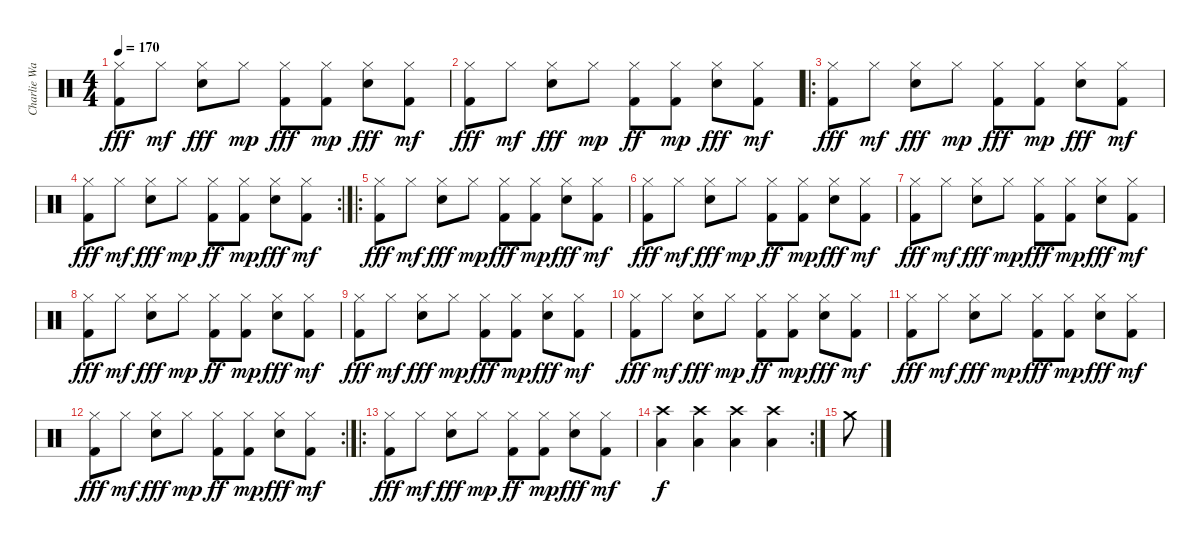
\track ("Charlie Watts" "Charlie Wa") {instrument percussion}
\staff {score}
\articulation defaults
\ts (4 4)
\tempo 170
\clef neutral
\ks c
("Kick (hit) 2" "Hi-Hat (closed)").8{dy fff} "Hi-Hat (closed)".8{dy mf} ("Electric Snare (hit)" "Hi-Hat (closed)").8{dy fff} "Hi-Hat (closed)".8{dy mp} ("Kick (hit) 2" "Hi-Hat (closed)").8{dy fff} ("Kick (hit) 2" "Hi-Hat (closed)").8{dy mp} ("Electric Snare (hit)" "Hi-Hat (closed)").8{dy fff} ("Kick (hit) 2" "Hi-Hat (closed)").8{dy mf} |
("Kick (hit) 2" "Hi-Hat (closed)").8{dy fff} "Hi-Hat (closed)".8{dy mf} ("Electric Snare (hit)" "Hi-Hat (closed)").8{dy fff} "Hi-Hat (closed)".8{dy mp} ("Kick (hit) 2" "Hi-Hat (closed)").8{dy ff} ("Kick (hit) 2" "Hi-Hat (closed)").8{dy mp} ("Electric Snare (hit)" "Hi-Hat (closed)").8{dy fff} ("Kick (hit) 2" "Hi-Hat (closed)").8{dy mf} |
\ro
("Kick (hit) 2" "Hi-Hat (closed)").8{dy fff} "Hi-Hat (closed)".8{dy mf} ("Electric Snare (hit)" "Hi-Hat (closed)").8{dy fff} "Hi-Hat (closed)".8{dy mp} ("Kick (hit) 2" "Hi-Hat (closed)").8{dy fff} ("Kick (hit) 2" "Hi-Hat (closed)").8{dy mp} ("Electric Snare (hit)" "Hi-Hat (closed)").8{dy fff} ("Kick (hit) 2" "Hi-Hat (closed)").8{dy mf} |
\rc 2
("Kick (hit) 2" "Hi-Hat (closed)").8{dy fff} "Hi-Hat (closed)".8{dy mf} ("Electric Snare (hit)" "Hi-Hat (closed)").8{dy fff} "Hi-Hat (closed)".8{dy mp} ("Kick (hit) 2" "Hi-Hat (closed)").8{dy ff} ("Kick (hit) 2" "Hi-Hat (closed)").8{dy mp} ("Electric Snare (hit)" "Hi-Hat (closed)").8{dy fff} ("Kick (hit) 2" "Hi-Hat (closed)").8{dy mf} |
\ro
("Kick (hit) 2" "Hi-Hat (closed)").8{dy fff} "Hi-Hat (closed)".8{dy mf} ("Electric Snare (hit)" "Hi-Hat (closed)").8{dy fff} "Hi-Hat (closed)".8{dy mp} ("Kick (hit) 2" "Hi-Hat (closed)").8{dy fff} ("Kick (hit) 2" "Hi-Hat (closed)").8{dy mp} ("Electric Snare (hit)" "Hi-Hat (closed)").8{dy fff} ("Kick (hit) 2" "Hi-Hat (closed)").8{dy mf} |
("Kick (hit) 2" "Hi-Hat (closed)").8{dy fff} "Hi-Hat (closed)".8{dy mf} ("Electric Snare (hit)" "Hi-Hat (closed)").8{dy fff} "Hi-Hat (closed)".8{dy mp} ("Kick (hit) 2" "Hi-Hat (closed)").8{dy ff} ("Kick (hit) 2" "Hi-Hat (closed)").8{dy mp} ("Electric Snare (hit)" "Hi-Hat (closed)").8{dy fff} ("Kick (hit) 2" "Hi-Hat (closed)").8{dy mf} |
("Kick (hit) 2" "Hi-Hat (closed)").8{dy fff} "Hi-Hat (closed)".8{dy mf} ("Electric Snare (hit)" "Hi-Hat (closed)").8{dy fff} "Hi-Hat (closed)".8{dy mp} ("Kick (hit) 2" "Hi-Hat (closed)").8{dy fff} ("Kick (hit) 2" "Hi-Hat (closed)").8{dy mp} ("Electric Snare (hit)" "Hi-Hat (closed)").8{dy fff} ("Kick (hit) 2" "Hi-Hat (closed)").8{dy mf} |
("Kick (hit) 2" "Hi-Hat (closed)").8{dy fff} "Hi-Hat (closed)".8{dy mf} ("Electric Snare (hit)" "Hi-Hat (closed)").8{dy fff} "Hi-Hat (closed)".8{dy mp} ("Kick (hit) 2" "Hi-Hat (closed)").8{dy ff} ("Kick (hit) 2" "Hi-Hat (closed)").8{dy mp} ("Electric Snare (hit)" "Hi-Hat (closed)").8{dy fff} ("Kick (hit) 2" "Hi-Hat (closed)").8{dy mf} |
("Kick (hit) 2" "Hi-Hat (closed)").8{dy fff} "Hi-Hat (closed)".8{dy mf} ("Electric Snare (hit)" "Hi-Hat (closed)").8{dy fff} "Hi-Hat (closed)".8{dy mp} ("Kick (hit) 2" "Hi-Hat (closed)").8{dy fff} ("Kick (hit) 2" "Hi-Hat (closed)").8{dy mp} ("Electric Snare (hit)" "Hi-Hat (closed)").8{dy fff} ("Kick (hit) 2" "Hi-Hat (closed)").8{dy mf} |
("Kick (hit) 2" "Hi-Hat (closed)").8{dy fff} "Hi-Hat (closed)".8{dy mf} ("Electric Snare (hit)" "Hi-Hat (closed)").8{dy fff} "Hi-Hat (closed)".8{dy mp} ("Kick (hit) 2" "Hi-Hat (closed)").8{dy ff} ("Kick (hit) 2" "Hi-Hat (closed)").8{dy mp} ("Electric Snare (hit)" "Hi-Hat (closed)").8{dy fff} ("Kick (hit) 2" "Hi-Hat (closed)").8{dy mf} |
("Kick (hit) 2" "Hi-Hat (closed)").8{dy fff} "Hi-Hat (closed)".8{dy mf} ("Electric Snare (hit)" "Hi-Hat (closed)").8{dy fff} "Hi-Hat (closed)".8{dy mp} ("Kick (hit) 2" "Hi-Hat (closed)").8{dy fff} ("Kick (hit) 2" "Hi-Hat (closed)").8{dy mp} ("Electric Snare (hit)" "Hi-Hat (closed)").8{dy fff} ("Kick (hit) 2" "Hi-Hat (closed)").8{dy mf} |
\rc 2
("Kick (hit) 2" "Hi-Hat (closed)").8{dy fff} "Hi-Hat (closed)".8{dy mf} ("Electric Snare (hit)" "Hi-Hat (closed)").8{dy fff} "Hi-Hat (closed)".8{dy mp} ("Kick (hit) 2" "Hi-Hat (closed)").8{dy ff} ("Kick (hit) 2" "Hi-Hat (closed)").8{dy mp} ("Electric Snare (hit)" "Hi-Hat (closed)").8{dy fff} ("Kick (hit) 2" "Hi-Hat (closed)").8{dy mf} |
\ro
("Kick (hit) 2" "Hi-Hat (closed)").8{dy fff} "Hi-Hat (closed)".8{dy mf} ("Electric Snare (hit)" "Hi-Hat (closed)").8{dy fff} "Hi-Hat (closed)".8{dy mp} ("Kick (hit) 2" "Hi-Hat (closed)").8{dy ff} ("Kick (hit) 2" "Hi-Hat (closed)").8{dy mp} ("Electric Snare (hit)" "Hi-Hat (closed)").8{dy fff} ("Kick (hit) 2" "Hi-Hat (closed)").8{dy mf} |
\rc 2
("Low Tom (hit)" "Crash high (hit)").4{dy f} ("Low Tom (hit)" "Crash high (hit)").4 ("Low Tom (hit)" "Crash high (hit)").4 ("Low Tom (hit)" "Crash high (hit)").4 |
"Crash medium (hit)".8
